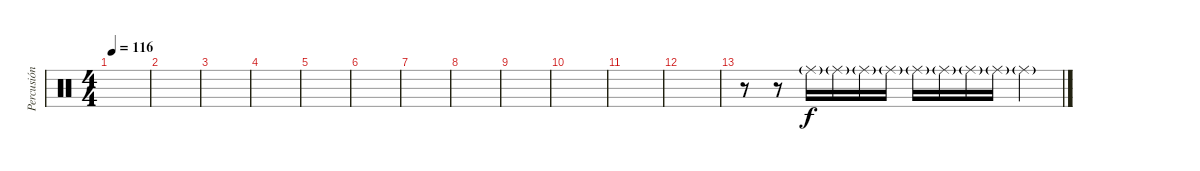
\track ("Percusión" "Percusión") {instrument percussion}
\staff {score}
\articulation defaults
\ts (4 4)
\tempo 116
\clef neutral
\ks c
|
|
|
|
|
|
|
|
|
|
|
|
r.8 r.8 "Ride (middle)"{g}.16 "Ride (middle)"{g}.16 "Ride (middle)"{g}.16 "Ride (middle)"{g}.16 "Ride (middle)"{g}.16 "Ride (middle)"{g}.16 "Ride (middle)"{g}.16 "Ride (middle)"{g}.16 "Ride (middle)"{g}.4
